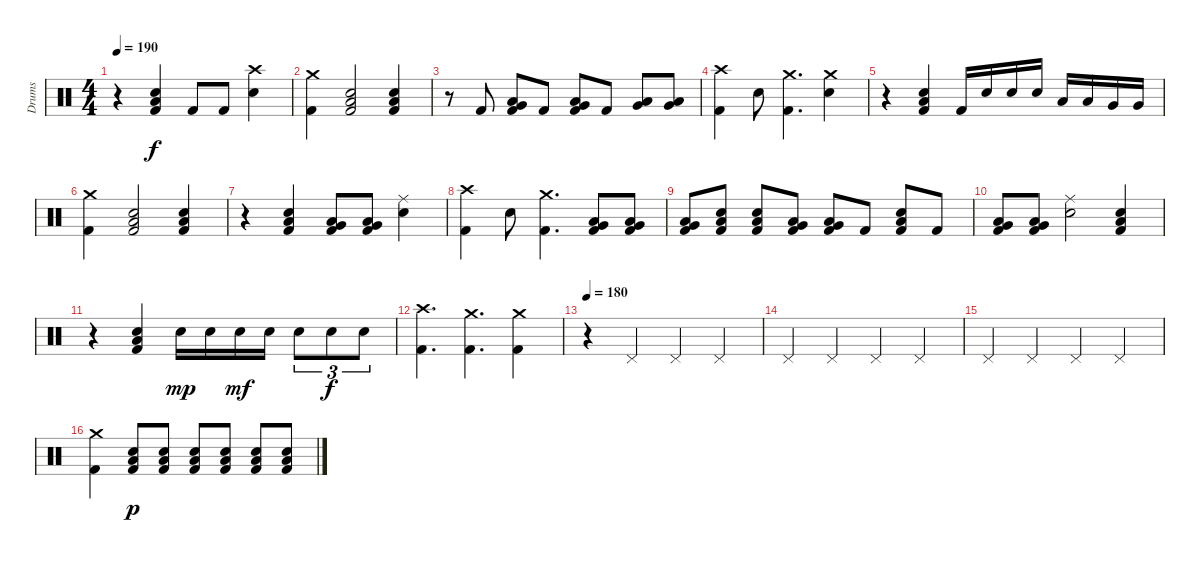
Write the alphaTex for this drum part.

\track ("Drums" "Drums") {instrument percussion}
\staff {score}
\articulation defaults
\ts (4 4)
\tempo 190
\clef neutral
\ks c
r.4{dy f} ("Low Floor Tom (hit)" "Electric Snare (hit)" "Kick (hit) 2").4 "Kick (hit) 2".8 "Kick (hit) 2".8 ("Crash high (hit)" "Electric Snare (hit)").4 |
("Crash medium (hit)" "Kick (hit) 2").4 ("Low Floor Tom (hit)" "Electric Snare (hit)" "Kick (hit) 2").2 ("Low Floor Tom (hit)" "Electric Snare (hit)" "Kick (hit) 2").4 |
r.8 "Kick (hit) 2".8 ("Low Floor Tom (hit)" "Very Low Tom (hit)" "Kick (hit) 2").8{bd 120} "Kick (hit) 2".8 ("Low Floor Tom (hit)" "Very Low Tom (hit)" "Kick (hit) 2").8{bd 120} "Kick (hit) 2".8 ("Very Low Tom (hit)" "Low Tom (hit)").8 ("Low Floor Tom (hit)" "Very Low Tom (hit)").8 |
("Crash high (hit)" "Kick (hit) 2").4 "Electric Snare (hit)".8 ("Crash medium (hit)" "Kick (hit) 2").4{d} ("Crash medium (hit)" "Electric Snare (hit)").4 |
r.4 ("Low Floor Tom (hit)" "Electric Snare (hit)" "Kick (hit) 2").4 "Kick (hit) 2".16 "Electric Snare (hit)".16 "Electric Snare (hit)".16 "Electric Snare (hit)".16 "Low Tom (hit)".16 "Low Tom (hit)".16 "Very Low Tom (hit)".16 "Very Low Tom (hit)".16 |
("Crash medium (hit)" "Kick (hit) 2").4 ("Low Floor Tom (hit)" "Electric Snare (hit)" "Kick (hit) 2").2 ("Low Floor Tom (hit)" "Electric Snare (hit)" "Kick (hit) 2").4 |
r.4 ("Low Floor Tom (hit)" "Electric Snare (hit)" "Kick (hit) 2").4 ("Very Low Tom (hit)" "Low Tom (hit)" "Kick (hit) 2").8 ("Very Low Tom (hit)" "Low Tom (hit)" "Kick (hit) 2").8 ("Ride (middle)" "Electric Snare (hit)").4 |
("Crash high (hit)" "Kick (hit) 2").4 "Electric Snare (hit)".8 ("Crash medium (hit)" "Kick (hit) 2").4{d} ("Very Low Tom (hit)" "Low Tom (hit)" "Kick (hit) 2").8 ("Very Low Tom (hit)" "Low Tom (hit)" "Kick (hit) 2").8 |
("Very Low Tom (hit)" "Low Tom (hit)" "Kick (hit) 2").8 ("Low Floor Tom (hit)" "Electric Snare (hit)" "Kick (hit) 2").8 ("Low Floor Tom (hit)" "Electric Snare (hit)" "Kick (hit) 2").8 ("Very Low Tom (hit)" "Low Tom (hit)" "Kick (hit) 2").8 ("Very Low Tom (hit)" "Low Tom (hit)" "Kick (hit) 2").8 "Kick (hit) 2".8 ("Low Floor Tom (hit)" "Electric Snare (hit)" "Kick (hit) 2").8 "Kick (hit) 2".8 |
("Low Floor Tom (hit)" "Very Low Tom (hit)" "Kick (hit) 2").8 ("Low Floor Tom (hit)" "Very Low Tom (hit)" "Kick (hit) 2").8 ("Ride (middle)" "Electric Snare (hit)").2 ("Low Floor Tom (hit)" "Electric Snare (hit)" "Kick (hit) 2").4 |
r.4 ("Low Floor Tom (hit)" "Electric Snare (hit)" "Kick (hit) 2").4 "Electric Snare (hit)".16{dy mp} "Electric Snare (hit)".16 "Electric Snare (hit)".16{dy mf} "Electric Snare (hit)".16 "Electric Snare (hit)".8{tu (3 2)} "Electric Snare (hit)".8{tu (3 2) dy f} "Electric Snare (hit)".8{tu (3 2)} |
("Crash high (hit)" "Kick (hit) 2").4{d} ("Crash medium (hit)" "Kick (hit) 2").4{d} ("Crash medium (hit)" "Kick (hit) 2").4 |
\tempo 180
r.4 "Pedal Hi-Hat (hit)".4 "Pedal Hi-Hat (hit)".4 "Pedal Hi-Hat (hit)".4 |
"Pedal Hi-Hat (hit)".4 "Pedal Hi-Hat (hit)".4 "Pedal Hi-Hat (hit)".4 "Pedal Hi-Hat (hit)".4 |
"Pedal Hi-Hat (hit)".4 "Pedal Hi-Hat (hit)".4 "Pedal Hi-Hat (hit)".4 "Pedal Hi-Hat (hit)".4 |
("Crash medium (hit)" "Kick (hit) 2").4 ("Low Floor Tom (hit)" "Electric Snare (hit)" "Kick (hit) 2").8{dy p} ("Low Floor Tom (hit)" "Electric Snare (hit)" "Kick (hit) 2").8 ("Low Floor Tom (hit)" "Electric Snare (hit)" "Kick (hit) 2").8 ("Low Floor Tom (hit)" "Electric Snare (hit)" "Kick (hit) 2").8 ("Low Floor Tom (hit)" "Electric Snare (hit)" "Kick (hit) 2").8 ("Low Floor Tom (hit)" "Electric Snare (hit)" "Kick (hit) 2").8
